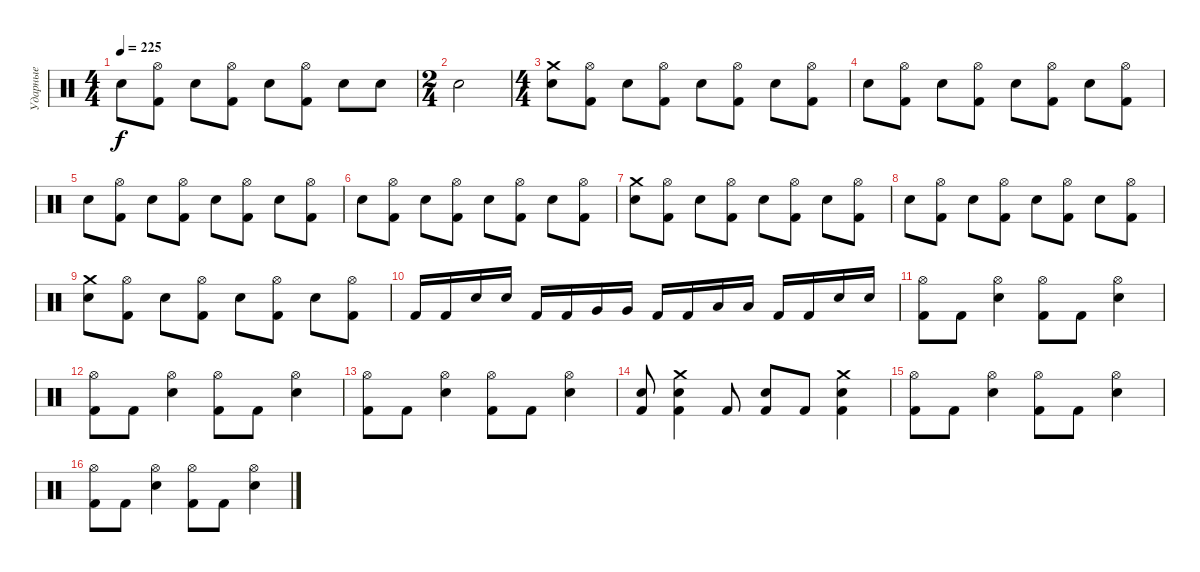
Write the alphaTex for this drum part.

\track ("Ударные" "Ударные") {instrument percussion}
\staff {score}
\articulation defaults
\ts (4 4)
\tempo 225
\clef neutral
\ks c "Snare (hit) 2".8{dy f}
("Hi-Hat (open)" "Kick (hit) 2").8 "Snare (hit) 2".8 ("Hi-Hat (open)" "Kick (hit) 2").8 "Snare (hit) 2".8 ("Hi-Hat (open)" "Kick (hit) 2").8 "Snare (hit) 2".8 "Snare (hit) 2".8 |
\ts (2 4)
"Snare (hit) 2".2 |
\ts (4 4)
("Crash medium (hit)" "Snare (hit) 2").8 ("Hi-Hat (open)" "Kick (hit) 2").8 "Snare (hit) 2".8 ("Hi-Hat (open)" "Kick (hit) 2").8 "Snare (hit) 2".8 ("Hi-Hat (open)" "Kick (hit) 2").8 "Snare (hit) 2".8 ("Hi-Hat (open)" "Kick (hit) 2").8 |
"Snare (hit) 2".8 ("Hi-Hat (open)" "Kick (hit) 2").8 "Snare (hit) 2".8 ("Hi-Hat (open)" "Kick (hit) 2").8 "Snare (hit) 2".8 ("Hi-Hat (open)" "Kick (hit) 2").8 "Snare (hit) 2".8 ("Hi-Hat (open)" "Kick (hit) 2").8 |
"Snare (hit) 2".8 ("Hi-Hat (open)" "Kick (hit) 2").8 "Snare (hit) 2".8 ("Hi-Hat (open)" "Kick (hit) 2").8 "Snare (hit) 2".8 ("Hi-Hat (open)" "Kick (hit) 2").8 "Snare (hit) 2".8 ("Hi-Hat (open)" "Kick (hit) 2").8 |
"Snare (hit) 2".8 ("Hi-Hat (open)" "Kick (hit) 2").8 "Snare (hit) 2".8 ("Hi-Hat (open)" "Kick (hit) 2").8 "Snare (hit) 2".8 ("Hi-Hat (open)" "Kick (hit) 2").8 "Snare (hit) 2".8 ("Hi-Hat (open)" "Kick (hit) 2").8 |
("Crash medium (hit)" "Snare (hit) 2").8 ("Hi-Hat (open)" "Kick (hit) 2").8 "Snare (hit) 2".8 ("Hi-Hat (open)" "Kick (hit) 2").8 "Snare (hit) 2".8 ("Hi-Hat (open)" "Kick (hit) 2").8 "Snare (hit) 2".8 ("Hi-Hat (open)" "Kick (hit) 2").8 |
"Snare (hit) 2".8 ("Hi-Hat (open)" "Kick (hit) 2").8 "Snare (hit) 2".8 ("Hi-Hat (open)" "Kick (hit) 2").8 "Snare (hit) 2".8 ("Hi-Hat (open)" "Kick (hit) 2").8 "Snare (hit) 2".8 ("Hi-Hat (open)" "Kick (hit) 2").8 |
("Crash medium (hit)" "Snare (hit) 2").8 ("Hi-Hat (open)" "Kick (hit) 2").8 "Snare (hit) 2".8 ("Hi-Hat (open)" "Kick (hit) 2").8 "Snare (hit) 2".8 ("Hi-Hat (open)" "Kick (hit) 2").8 "Snare (hit) 2".8 ("Hi-Hat (open)" "Kick (hit) 2").8 |
"Kick (hit) 2".16 "Kick (hit) 2".16 "Snare (hit) 2".16 "Snare (hit) 2".16 "Kick (hit) 2".16 "Kick (hit) 2".16 "Very Low Tom (hit)".16 "Very Low Tom (hit)".16 "Kick (hit) 2".16 "Kick (hit) 2".16 "Low Tom (hit)".16 "Low Tom (hit)".16 "Kick (hit) 2".16 "Kick (hit) 2".16 "Snare (hit) 2".16 "Snare (hit) 2".16 |
("Hi-Hat (open)" "Kick (hit) 2").8 "Kick (hit) 2".8 ("Hi-Hat (open)" "Snare (hit) 2").4 ("Hi-Hat (open)" "Kick (hit) 2").8 "Kick (hit) 2".8 ("Hi-Hat (open)" "Snare (hit) 2").4 |
("Hi-Hat (open)" "Kick (hit) 2").8 "Kick (hit) 2".8 ("Hi-Hat (open)" "Snare (hit) 2").4 ("Hi-Hat (open)" "Kick (hit) 2").8 "Kick (hit) 2".8 ("Hi-Hat (open)" "Snare (hit) 2").4 |
("Hi-Hat (open)" "Kick (hit) 2").8 "Kick (hit) 2".8 ("Hi-Hat (open)" "Snare (hit) 2").4 ("Hi-Hat (open)" "Kick (hit) 2").8 "Kick (hit) 2".8 ("Hi-Hat (open)" "Snare (hit) 2").4 |
("Snare (hit) 2" "Kick (hit) 2").8 ("Crash medium (hit)" "Snare (hit) 2" "Kick (hit) 2").4 "Kick (hit) 2".8 ("Snare (hit) 2" "Kick (hit) 2").8 "Kick (hit) 2".8 ("Crash medium (hit)" "Snare (hit) 2" "Kick (hit) 2").4 |
("Hi-Hat (open)" "Kick (hit) 2").8 "Kick (hit) 2".8 ("Hi-Hat (open)" "Snare (hit) 2").4 ("Hi-Hat (open)" "Kick (hit) 2").8 "Kick (hit) 2".8 ("Hi-Hat (open)" "Snare (hit) 2").4 |
("Hi-Hat (open)" "Kick (hit) 2").8 "Kick (hit) 2".8 ("Hi-Hat (open)" "Snare (hit) 2").4 ("Hi-Hat (open)" "Kick (hit) 2").8 "Kick (hit) 2".8 ("Hi-Hat (open)" "Snare (hit) 2").4
